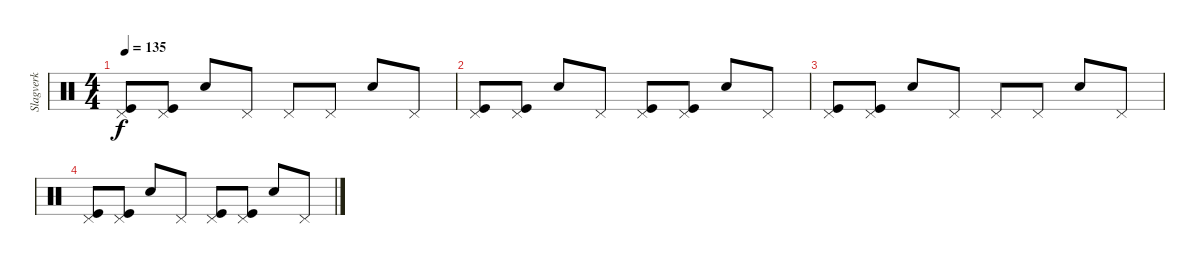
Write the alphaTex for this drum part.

\track ("Slagverk" "Slagverk") {instrument percussion}
\staff {score}
\articulation defaults
\ts (4 4)
\tempo 135
\clef neutral
\ks c
("Pedal Hi-Hat (hit)" "Kick (hit)").8{dy f} ("Pedal Hi-Hat (hit)" "Kick (hit)").8 "Hand Clap (hit)".8 "Pedal Hi-Hat (hit)".8 "Pedal Hi-Hat (hit)".8 "Pedal Hi-Hat (hit)".8 "Hand Clap (hit)".8{volume 11} "Pedal Hi-Hat (hit)".8 |
("Pedal Hi-Hat (hit)" "Kick (hit)").8 ("Pedal Hi-Hat (hit)" "Kick (hit)").8 "Hand Clap (hit)".8 "Pedal Hi-Hat (hit)".8 ("Pedal Hi-Hat (hit)" "Kick (hit)").8 ("Pedal Hi-Hat (hit)" "Kick (hit)").8 "Hand Clap (hit)".8{volume 9} "Pedal Hi-Hat (hit)".8 |
("Pedal Hi-Hat (hit)" "Kick (hit)").8 ("Pedal Hi-Hat (hit)" "Kick (hit)").8 "Hand Clap (hit)".8 "Pedal Hi-Hat (hit)".8 "Pedal Hi-Hat (hit)".8 "Pedal Hi-Hat (hit)".8 "Hand Clap (hit)".8{volume 7} "Pedal Hi-Hat (hit)".8 |
("Pedal Hi-Hat (hit)" "Kick (hit)").8 ("Pedal Hi-Hat (hit)" "Kick (hit)").8 "Hand Clap (hit)".8 "Pedal Hi-Hat (hit)".8 ("Pedal Hi-Hat (hit)" "Kick (hit)").8{volume 4} ("Pedal Hi-Hat (hit)" "Kick (hit)").8 "Hand Clap (hit)".8 "Pedal Hi-Hat (hit)".8
